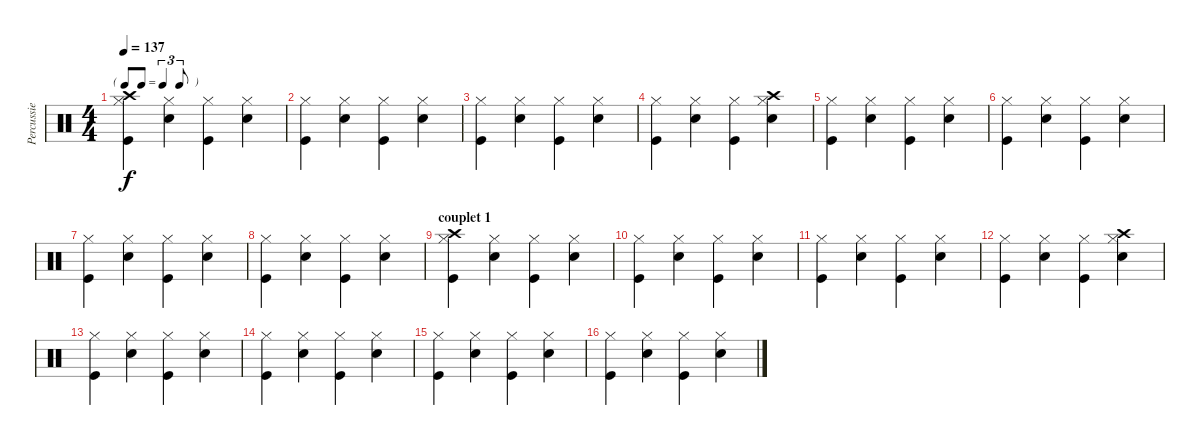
\track ("Percussie" "Percussie") {instrument percussion}
\staff {score}
\articulation defaults
\ts (4 4)
\tf triplet8th
\tempo 137
\clef neutral
\ks c
("Hi-Hat (closed)" "Crash high (hit)" "Kick (hit)").4{dy f} ("Hi-Hat (closed)" "Snare (hit) 2").4 ("Hi-Hat (closed)" "Kick (hit)").4 ("Hi-Hat (closed)" "Snare (hit) 2").4 |
("Hi-Hat (closed)" "Kick (hit)").4 ("Hi-Hat (closed)" "Snare (hit) 2").4 ("Hi-Hat (closed)" "Kick (hit)").4 ("Hi-Hat (closed)" "Snare (hit) 2").4 |
("Hi-Hat (closed)" "Kick (hit)").4 ("Hi-Hat (closed)" "Snare (hit) 2").4 ("Hi-Hat (closed)" "Kick (hit)").4 ("Hi-Hat (closed)" "Snare (hit) 2").4 |
("Hi-Hat (closed)" "Kick (hit)").4 ("Hi-Hat (closed)" "Snare (hit) 2").4 ("Hi-Hat (closed)" "Kick (hit)").4 ("Hi-Hat (closed)" "Crash high (hit)" "Snare (hit) 2").4 |
("Hi-Hat (closed)" "Kick (hit)").4 ("Hi-Hat (closed)" "Snare (hit) 2").4 ("Hi-Hat (closed)" "Kick (hit)").4 ("Hi-Hat (closed)" "Snare (hit) 2").4 |
("Hi-Hat (closed)" "Kick (hit)").4 ("Hi-Hat (closed)" "Snare (hit) 2").4 ("Hi-Hat (closed)" "Kick (hit)").4 ("Hi-Hat (closed)" "Snare (hit) 2").4 |
("Hi-Hat (closed)" "Kick (hit)").4 ("Hi-Hat (closed)" "Snare (hit) 2").4 ("Hi-Hat (closed)" "Kick (hit)").4 ("Hi-Hat (closed)" "Snare (hit) 2").4 |
("Hi-Hat (closed)" "Kick (hit)").4 ("Hi-Hat (closed)" "Snare (hit) 2").4 ("Hi-Hat (closed)" "Kick (hit)").4 ("Hi-Hat (closed)" "Snare (hit) 2").4 |
\section ("" "couplet 1")
("Hi-Hat (closed)" "Crash high (hit)" "Kick (hit)").4 ("Hi-Hat (closed)" "Snare (hit) 2").4 ("Hi-Hat (closed)" "Kick (hit)").4 ("Hi-Hat (closed)" "Snare (hit) 2").4 |
("Hi-Hat (closed)" "Kick (hit)").4 ("Hi-Hat (closed)" "Snare (hit) 2").4 ("Hi-Hat (closed)" "Kick (hit)").4 ("Hi-Hat (closed)" "Snare (hit) 2").4 |
("Hi-Hat (closed)" "Kick (hit)").4 ("Hi-Hat (closed)" "Snare (hit) 2").4 ("Hi-Hat (closed)" "Kick (hit)").4 ("Hi-Hat (closed)" "Snare (hit) 2").4 |
("Hi-Hat (closed)" "Kick (hit)").4 ("Hi-Hat (closed)" "Snare (hit) 2").4 ("Hi-Hat (closed)" "Kick (hit)").4 ("Hi-Hat (closed)" "Crash high (hit)" "Snare (hit) 2").4 |
("Hi-Hat (closed)" "Kick (hit)").4 ("Hi-Hat (closed)" "Snare (hit) 2").4 ("Hi-Hat (closed)" "Kick (hit)").4 ("Hi-Hat (closed)" "Snare (hit) 2").4 |
("Hi-Hat (closed)" "Kick (hit)").4 ("Hi-Hat (closed)" "Snare (hit) 2").4 ("Hi-Hat (closed)" "Kick (hit)").4 ("Hi-Hat (closed)" "Snare (hit) 2").4 |
("Hi-Hat (closed)" "Kick (hit)").4 ("Hi-Hat (closed)" "Snare (hit) 2").4 ("Hi-Hat (closed)" "Kick (hit)").4 ("Hi-Hat (closed)" "Snare (hit) 2").4 |
("Hi-Hat (closed)" "Kick (hit)").4 ("Hi-Hat (closed)" "Snare (hit) 2").4 ("Hi-Hat (closed)" "Kick (hit)").4 ("Hi-Hat (closed)" "Snare (hit) 2").4
